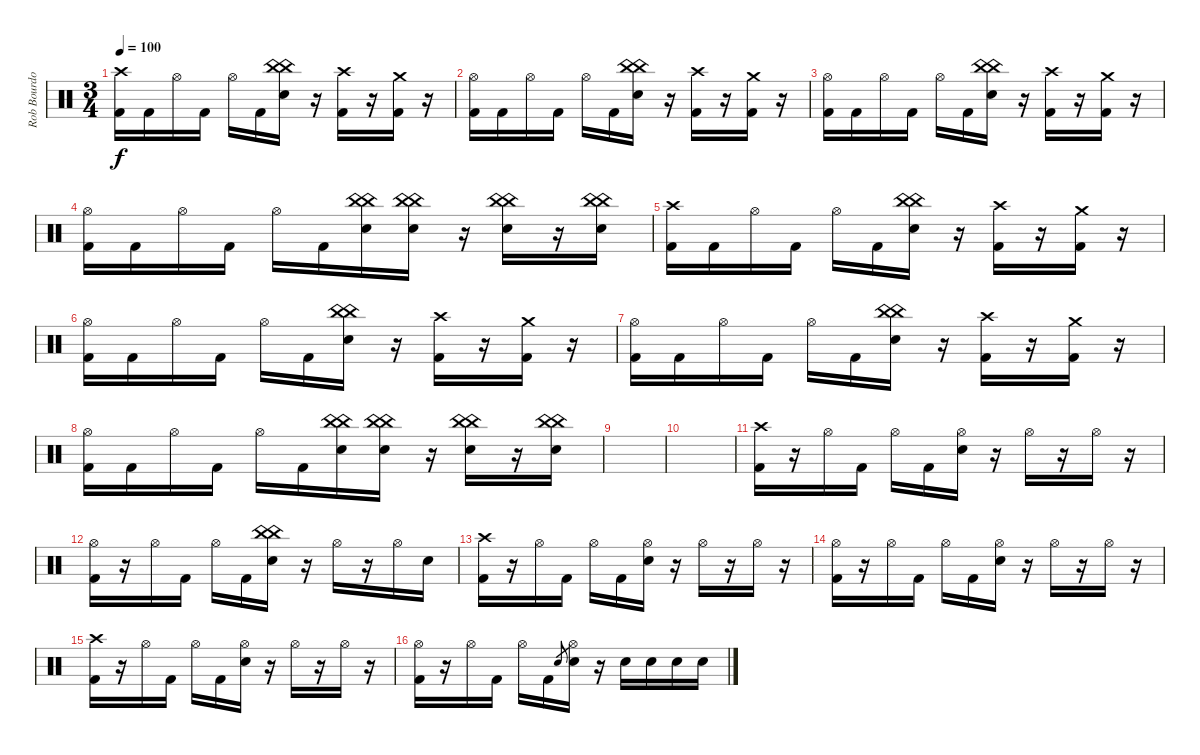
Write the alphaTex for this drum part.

\track ("Rob Bourdon (Drums)" "Rob Bourdo") {instrument percussion}
\staff {score}
\articulation defaults
\ts (3 4)
\tempo 100
\clef neutral
\ks c
("Crash high (hit)" "Kick (hit) 2").16{dy f} "Kick (hit) 2".16 "Hi-Hat (open)".16 "Kick (hit) 2".16 "Hi-Hat (open)".16 "Kick (hit) 2".16 ("China (hit)" "China (hit)" "Electric Snare (hit)").16 r.16 ("Crash high (hit)" "Kick (hit) 2").16 r.16 ("Crash medium (hit)" "Kick (hit) 2").16 r.16 |
("Hi-Hat (open)" "Kick (hit) 2").16 "Kick (hit) 2".16 "Hi-Hat (open)".16 "Kick (hit) 2".16 "Hi-Hat (open)".16 "Kick (hit) 2".16 ("China (hit)" "China (hit)" "Electric Snare (hit)").16 r.16 ("Crash high (hit)" "Kick (hit) 2").16 r.16 ("Crash medium (hit)" "Kick (hit) 2").16 r.16 |
("Hi-Hat (open)" "Kick (hit) 2").16 "Kick (hit) 2".16 "Hi-Hat (open)".16 "Kick (hit) 2".16 "Hi-Hat (open)".16 "Kick (hit) 2".16 ("China (hit)" "China (hit)" "Electric Snare (hit)").16 r.16 ("Crash high (hit)" "Kick (hit) 2").16 r.16 ("Crash medium (hit)" "Kick (hit) 2").16 r.16 |
("Hi-Hat (open)" "Kick (hit) 2").16 "Kick (hit) 2".16 "Hi-Hat (open)".16 "Kick (hit) 2".16 "Hi-Hat (open)".16 "Kick (hit) 2".16 ("China (hit)" "China (hit)" "Electric Snare (hit)").16 ("China (hit)" "China (hit)" "Electric Snare (hit)").16 r.16 ("China (hit)" "China (hit)" "Electric Snare (hit)").16 r.16 ("China (hit)" "China (hit)" "Electric Snare (hit)").16 |
("Crash high (hit)" "Kick (hit) 2").16 "Kick (hit) 2".16 "Hi-Hat (open)".16 "Kick (hit) 2".16 "Hi-Hat (open)".16 "Kick (hit) 2".16 ("China (hit)" "China (hit)" "Electric Snare (hit)").16 r.16 ("Crash high (hit)" "Kick (hit) 2").16 r.16 ("Crash medium (hit)" "Kick (hit) 2").16 r.16 |
("Hi-Hat (open)" "Kick (hit) 2").16 "Kick (hit) 2".16 "Hi-Hat (open)".16 "Kick (hit) 2".16 "Hi-Hat (open)".16 "Kick (hit) 2".16 ("China (hit)" "China (hit)" "Electric Snare (hit)").16 r.16 ("Crash high (hit)" "Kick (hit) 2").16 r.16 ("Crash medium (hit)" "Kick (hit) 2").16 r.16 |
("Hi-Hat (open)" "Kick (hit) 2").16 "Kick (hit) 2".16 "Hi-Hat (open)".16 "Kick (hit) 2".16 "Hi-Hat (open)".16 "Kick (hit) 2".16 ("China (hit)" "China (hit)" "Electric Snare (hit)").16 r.16 ("Crash high (hit)" "Kick (hit) 2").16 r.16 ("Crash medium (hit)" "Kick (hit) 2").16 r.16 |
("Hi-Hat (open)" "Kick (hit) 2").16 "Kick (hit) 2".16 "Hi-Hat (open)".16 "Kick (hit) 2".16 "Hi-Hat (open)".16 "Kick (hit) 2".16 ("China (hit)" "China (hit)" "Electric Snare (hit)").16 ("China (hit)" "China (hit)" "Electric Snare (hit)").16 r.16 ("China (hit)" "China (hit)" "Electric Snare (hit)").16 r.16 ("China (hit)" "China (hit)" "Electric Snare (hit)").16 |
|
|
("Crash high (hit)" "Kick (hit) 2").16 r.16 "Hi-Hat (open)".16 "Kick (hit) 2".16 "Hi-Hat (open)".16 "Kick (hit) 2".16 ("Hi-Hat (open)" "Electric Snare (hit)").16 r.16 "Hi-Hat (open)".16 r.16 "Hi-Hat (open)".16 r.16 |
("Hi-Hat (open)" "Kick (hit) 2").16 r.16 "Hi-Hat (open)".16 "Kick (hit) 2".16 "Hi-Hat (open)".16 "Kick (hit) 2".16 ("China (hit)" "China (hit)" "Electric Snare (hit)").16 r.16 "Hi-Hat (open)".16 r.16 "Hi-Hat (open)".16 "Electric Snare (hit)".16 |
("Crash high (hit)" "Kick (hit) 2").16 r.16 "Hi-Hat (open)".16 "Kick (hit) 2".16 "Hi-Hat (open)".16 "Kick (hit) 2".16 ("Hi-Hat (open)" "Electric Snare (hit)").16 r.16 "Hi-Hat (open)".16 r.16 "Hi-Hat (open)".16 r.16 |
("Hi-Hat (open)" "Kick (hit) 2").16 r.16 "Hi-Hat (open)".16 "Kick (hit) 2".16 "Hi-Hat (open)".16 "Kick (hit) 2".16 ("Hi-Hat (open)" "Electric Snare (hit)").16 r.16 "Hi-Hat (open)".16 r.16 "Hi-Hat (open)".16 r.16 |
("Crash high (hit)" "Kick (hit) 2").16 r.16 "Hi-Hat (open)".16 "Kick (hit) 2".16 "Hi-Hat (open)".16 "Kick (hit) 2".16 ("Hi-Hat (open)" "Electric Snare (hit)").16 r.16 "Hi-Hat (open)".16 r.16 "Hi-Hat (open)".16 r.16 |
("Hi-Hat (open)" "Kick (hit) 2").16 r.16 "Hi-Hat (open)".16 "Kick (hit) 2".16 "Hi-Hat (open)".16 "Kick (hit) 2".16 "Electric Snare (hit)".8{gr} ("Hi-Hat (open)" "Electric Snare (hit)").16 r.16 "Electric Snare (hit)".16 "Electric Snare (hit)".16 "Electric Snare (hit)".16 "Electric Snare (hit)".16
